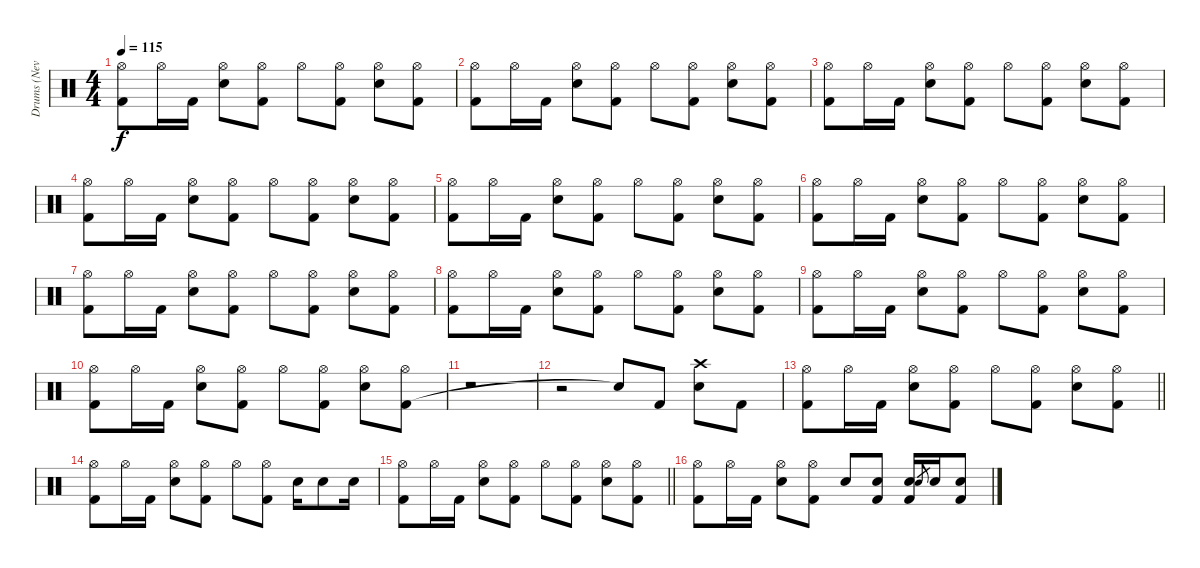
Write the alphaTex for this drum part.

\track ("Drums (Nevi)" "Drums (Nev") {instrument percussion}
\staff {score}
\articulation defaults
\ts (4 4)
\tempo 115
\clef neutral
\ks c
("Kick (hit) 2" "Hi-Hat (open)").8{dy f} "Hi-Hat (open)".16 "Kick (hit) 2".16 ("Snare (hit) 2" "Hi-Hat (open)").8 ("Kick (hit) 2" "Hi-Hat (open)").8 "Hi-Hat (open)".8 ("Kick (hit) 2" "Hi-Hat (open)").8 ("Snare (hit) 2" "Hi-Hat (open)").8 ("Kick (hit) 2" "Hi-Hat (open)").8 |
("Kick (hit) 2" "Hi-Hat (open)").8 "Hi-Hat (open)".16 "Kick (hit) 2".16 ("Snare (hit) 2" "Hi-Hat (open)").8 ("Kick (hit) 2" "Hi-Hat (open)").8 "Hi-Hat (open)".8 ("Kick (hit) 2" "Hi-Hat (open)").8 ("Snare (hit) 2" "Hi-Hat (open)").8 ("Kick (hit) 2" "Hi-Hat (open)").8 |
("Kick (hit) 2" "Hi-Hat (open)").8 "Hi-Hat (open)".16 "Kick (hit) 2".16 ("Snare (hit) 2" "Hi-Hat (open)").8 ("Kick (hit) 2" "Hi-Hat (open)").8 "Hi-Hat (open)".8 ("Kick (hit) 2" "Hi-Hat (open)").8 ("Snare (hit) 2" "Hi-Hat (open)").8 ("Kick (hit) 2" "Hi-Hat (open)").8 |
("Kick (hit) 2" "Hi-Hat (open)").8 "Hi-Hat (open)".16 "Kick (hit) 2".16 ("Snare (hit) 2" "Hi-Hat (open)").8 ("Kick (hit) 2" "Hi-Hat (open)").8 "Hi-Hat (open)".8 ("Kick (hit) 2" "Hi-Hat (open)").8 ("Snare (hit) 2" "Hi-Hat (open)").8 ("Kick (hit) 2" "Hi-Hat (open)").8 |
("Kick (hit) 2" "Hi-Hat (open)").8 "Hi-Hat (open)".16 "Kick (hit) 2".16 ("Snare (hit) 2" "Hi-Hat (open)").8 ("Kick (hit) 2" "Hi-Hat (open)").8 "Hi-Hat (open)".8 ("Kick (hit) 2" "Hi-Hat (open)").8 ("Snare (hit) 2" "Hi-Hat (open)").8 ("Kick (hit) 2" "Hi-Hat (open)").8 |
("Kick (hit) 2" "Hi-Hat (open)").8 "Hi-Hat (open)".16 "Kick (hit) 2".16 ("Snare (hit) 2" "Hi-Hat (open)").8 ("Kick (hit) 2" "Hi-Hat (open)").8 "Hi-Hat (open)".8 ("Kick (hit) 2" "Hi-Hat (open)").8 ("Snare (hit) 2" "Hi-Hat (open)").8 ("Kick (hit) 2" "Hi-Hat (open)").8 |
("Kick (hit) 2" "Hi-Hat (open)").8 "Hi-Hat (open)".16 "Kick (hit) 2".16 ("Snare (hit) 2" "Hi-Hat (open)").8 ("Kick (hit) 2" "Hi-Hat (open)").8 "Hi-Hat (open)".8 ("Kick (hit) 2" "Hi-Hat (open)").8 ("Snare (hit) 2" "Hi-Hat (open)").8 ("Kick (hit) 2" "Hi-Hat (open)").8 |
("Kick (hit) 2" "Hi-Hat (open)").8 "Hi-Hat (open)".16 "Kick (hit) 2".16 ("Snare (hit) 2" "Hi-Hat (open)").8 ("Kick (hit) 2" "Hi-Hat (open)").8 "Hi-Hat (open)".8 ("Kick (hit) 2" "Hi-Hat (open)").8 ("Snare (hit) 2" "Hi-Hat (open)").8 ("Kick (hit) 2" "Hi-Hat (open)").8 |
("Kick (hit) 2" "Hi-Hat (open)").8 "Hi-Hat (open)".16 "Kick (hit) 2".16 ("Snare (hit) 2" "Hi-Hat (open)").8 ("Kick (hit) 2" "Hi-Hat (open)").8 "Hi-Hat (open)".8 ("Kick (hit) 2" "Hi-Hat (open)").8 ("Snare (hit) 2" "Hi-Hat (open)").8 ("Kick (hit) 2" "Hi-Hat (open)").8 |
("Kick (hit) 2" "Hi-Hat (open)").8 "Hi-Hat (open)".16 "Kick (hit) 2".16 ("Snare (hit) 2" "Hi-Hat (open)").8 ("Kick (hit) 2" "Hi-Hat (open)").8 "Hi-Hat (open)".8 ("Kick (hit) 2" "Hi-Hat (open)").8 ("Snare (hit) 2" "Hi-Hat (open)").8 ("Kick (hit) 2" "Hi-Hat (open)").8 |
r.1 |
r.2 "Snare (hit)"{t}.8 "Kick (hit) 2".8 ("Snare (hit) 2" "Crash high (hit)").8 "Kick (hit) 2".8 |
\barLineRight lightlight
("Kick (hit) 2" "Hi-Hat (open)").8 "Hi-Hat (open)".16 "Kick (hit) 2".16 ("Snare (hit) 2" "Hi-Hat (open)").8 ("Kick (hit) 2" "Hi-Hat (open)").8 "Hi-Hat (open)".8 ("Kick (hit) 2" "Hi-Hat (open)").8 ("Snare (hit) 2" "Hi-Hat (open)").8 ("Kick (hit) 2" "Hi-Hat (open)").8 |
("Kick (hit) 2" "Hi-Hat (open)").8 "Hi-Hat (open)".16 "Kick (hit) 2".16 ("Snare (hit) 2" "Hi-Hat (open)").8 ("Kick (hit) 2" "Hi-Hat (open)").8 "Hi-Hat (open)".8 ("Kick (hit) 2" "Hi-Hat (open)").8 "Snare (hit) 2".16 "Snare (hit) 2".8 "Snare (hit) 2".16 |
\barLineRight lightlight
("Kick (hit) 2" "Hi-Hat (open)").8 "Hi-Hat (open)".16 "Kick (hit) 2".16 ("Snare (hit) 2" "Hi-Hat (open)").8 ("Kick (hit) 2" "Hi-Hat (open)").8 "Hi-Hat (open)".8 ("Kick (hit) 2" "Hi-Hat (open)").8 ("Snare (hit) 2" "Hi-Hat (open)").8 ("Kick (hit) 2" "Hi-Hat (open)").8 |
("Kick (hit) 2" "Hi-Hat (open)").8 "Hi-Hat (open)".16 "Kick (hit) 2".16 ("Snare (hit) 2" "Hi-Hat (open)").8 ("Kick (hit) 2" "Hi-Hat (open)").8 "Snare (hit) 2".8 ("Kick (hit) 2" "Snare (hit) 2").8 ("Kick (hit) 2" "Snare (hit) 2").16 "Snare (hit) 2".8{gr} "Snare (hit) 2".16 ("Kick (hit) 2" "Snare (hit) 2").8
